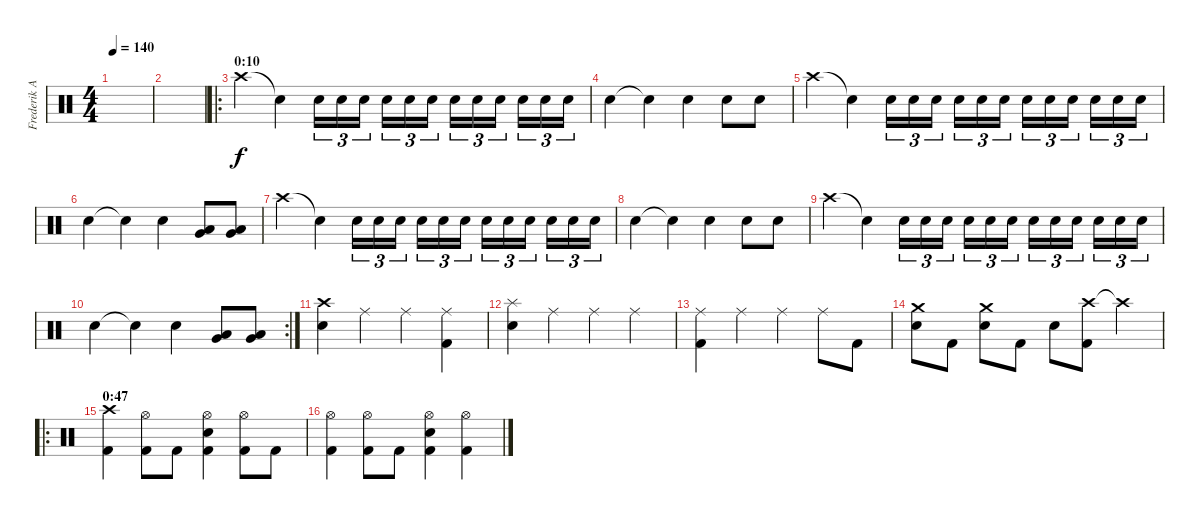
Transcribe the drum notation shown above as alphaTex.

\track ("Frederik Anderson" "Frederik A") {instrument percussion}
\staff {score}
\articulation defaults
\ts (4 4)
\tempo 140
\clef neutral
\ks c
|
|
\ro
\section ("" "0:10")
"Crash high (hit)".4 "Snare (hit)"{t}.4 "Electric Snare (hit)".16{tu (3 2)} "Electric Snare (hit)".16{tu (3 2)} "Electric Snare (hit)".16{tu (3 2)} "Electric Snare (hit)".16{tu (3 2)} "Electric Snare (hit)".16{tu (3 2)} "Electric Snare (hit)".16{tu (3 2)} "Electric Snare (hit)".16{tu (3 2)} "Electric Snare (hit)".16{tu (3 2)} "Electric Snare (hit)".16{tu (3 2)} "Electric Snare (hit)".16{tu (3 2)} "Electric Snare (hit)".16{tu (3 2)} "Electric Snare (hit)".16{tu (3 2)} |
"Electric Snare (hit)".4 "Electric Snare (hit)"{t}.4 "Electric Snare (hit)".4 "Electric Snare (hit)".8 "Electric Snare (hit)".8 |
"Crash high (hit)".4 "Snare (hit)"{t}.4 "Electric Snare (hit)".16{tu (3 2)} "Electric Snare (hit)".16{tu (3 2)} "Electric Snare (hit)".16{tu (3 2)} "Electric Snare (hit)".16{tu (3 2)} "Electric Snare (hit)".16{tu (3 2)} "Electric Snare (hit)".16{tu (3 2)} "Electric Snare (hit)".16{tu (3 2)} "Electric Snare (hit)".16{tu (3 2)} "Electric Snare (hit)".16{tu (3 2)} "Electric Snare (hit)".16{tu (3 2)} "Electric Snare (hit)".16{tu (3 2)} "Electric Snare (hit)".16{tu (3 2)} |
"Electric Snare (hit)".4 "Electric Snare (hit)"{t}.4 "Electric Snare (hit)".4 ("Low Tom (hit)" "Very Low Tom (hit)").8 ("Very Low Tom (hit)" "Low Floor Tom (hit)").8 |
"Crash high (hit)".4 "Snare (hit)"{t}.4 "Electric Snare (hit)".16{tu (3 2)} "Electric Snare (hit)".16{tu (3 2)} "Electric Snare (hit)".16{tu (3 2)} "Electric Snare (hit)".16{tu (3 2)} "Electric Snare (hit)".16{tu (3 2)} "Electric Snare (hit)".16{tu (3 2)} "Electric Snare (hit)".16{tu (3 2)} "Electric Snare (hit)".16{tu (3 2)} "Electric Snare (hit)".16{tu (3 2)} "Electric Snare (hit)".16{tu (3 2)} "Electric Snare (hit)".16{tu (3 2)} "Electric Snare (hit)".16{tu (3 2)} |
"Electric Snare (hit)".4 "Electric Snare (hit)"{t}.4 "Electric Snare (hit)".4 "Electric Snare (hit)".8 "Electric Snare (hit)".8 |
"Crash high (hit)".4 "Snare (hit)"{t}.4 "Electric Snare (hit)".16{tu (3 2)} "Electric Snare (hit)".16{tu (3 2)} "Electric Snare (hit)".16{tu (3 2)} "Electric Snare (hit)".16{tu (3 2)} "Electric Snare (hit)".16{tu (3 2)} "Electric Snare (hit)".16{tu (3 2)} "Electric Snare (hit)".16{tu (3 2)} "Electric Snare (hit)".16{tu (3 2)} "Electric Snare (hit)".16{tu (3 2)} "Electric Snare (hit)".16{tu (3 2)} "Electric Snare (hit)".16{tu (3 2)} "Electric Snare (hit)".16{tu (3 2)} |
\rc 2 "Electric Snare (hit)".4 "Electric Snare (hit)"{t}.4 "Electric Snare (hit)".4
("Low Tom (hit)" "Very Low Tom (hit)").8 ("Very Low Tom (hit)" "Low Floor Tom (hit)").8 |
("Crash high (hit)" "Electric Snare (hit)").4 "Ride (middle)".4 "Ride (middle)".4 ("Ride (middle)" "Kick (hit) 2").4 |
("Splash (hit)" "Electric Snare (hit)").4 "Ride (middle)".4 "Ride (middle)".4 "Ride (middle)".4 |
("Ride (middle)" "Kick (hit) 2").4 "Ride (middle)".4 "Ride (middle)".4 "Ride (middle)".8 "Kick (hit) 2".8 |
("Crash medium (hit)" "Electric Snare (hit)").8 "Kick (hit) 2".8 ("Crash medium (hit)" "Electric Snare (hit)").8 "Kick (hit) 2".8 "Electric Snare (hit)".8 ("Crash high (hit)" "Kick (hit) 2").8 "Crash high (hit)"{t}.4 |
\ro
\section ("" "0:47")
("Crash high (hit)" "Kick (hit) 2").4 ("Hi-Hat (open)" "Kick (hit) 2").8 "Kick (hit) 2".8 ("Hi-Hat (open)" "Electric Snare (hit)" "Kick (hit) 2").4 ("Hi-Hat (open)" "Kick (hit) 2").8 "Kick (hit) 2".8 |
("Hi-Hat (open)" "Kick (hit) 2").4 ("Hi-Hat (open)" "Kick (hit) 2").8 "Kick (hit) 2".8 ("Hi-Hat (open)" "Electric Snare (hit)" "Kick (hit) 2").4 ("Hi-Hat (open)" "Kick (hit) 2").4
